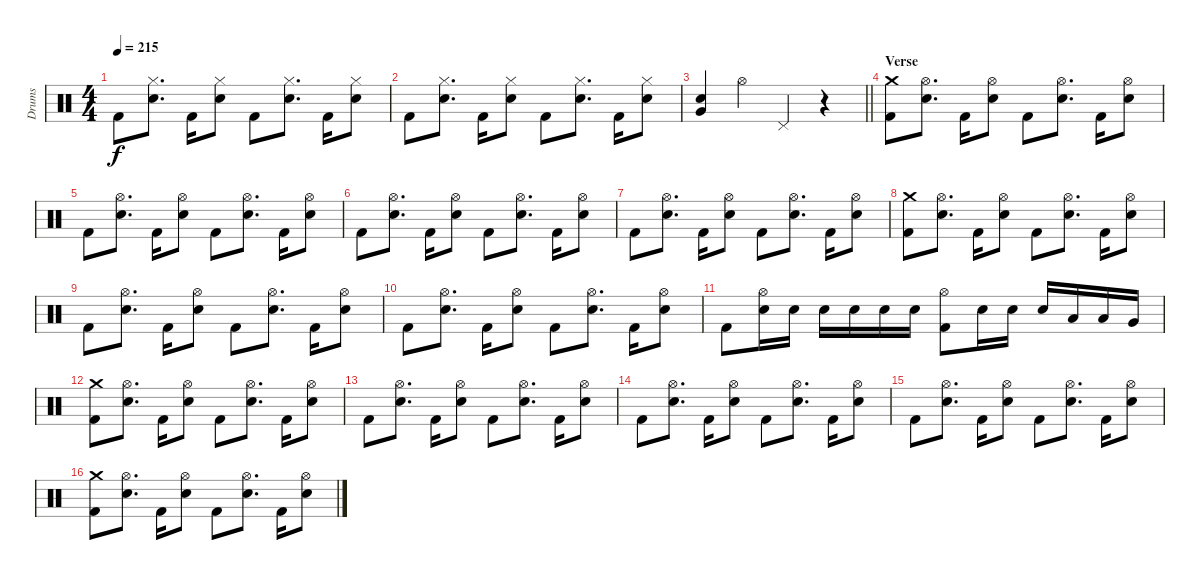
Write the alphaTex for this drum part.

\track ("Drums" "Drums") {instrument percussion}
\staff {score}
\articulation defaults
\ts (4 4)
\tempo 215
\clef neutral
\ks c "Kick (hit) 2".8{dy f}
("Hi-Hat (closed)" "Electric Snare (hit)").8{d} "Kick (hit) 2".16 ("Hi-Hat (closed)" "Electric Snare (hit)").8 "Kick (hit) 2".8 ("Hi-Hat (closed)" "Electric Snare (hit)").8{d} "Kick (hit) 2".16 ("Hi-Hat (closed)" "Electric Snare (hit)").8 |
"Kick (hit) 2".8 ("Hi-Hat (closed)" "Electric Snare (hit)").8{d} "Kick (hit) 2".16 ("Hi-Hat (closed)" "Electric Snare (hit)").8 "Kick (hit) 2".8 ("Hi-Hat (closed)" "Electric Snare (hit)").8{d} "Kick (hit) 2".16 ("Hi-Hat (closed)" "Electric Snare (hit)").8 |
\barLineRight lightlight
("Very Low Tom (hit)" "Electric Snare (hit)").4 "Hi-Hat (open)".4 "Pedal Hi-Hat (hit)".4 r.4 |
\section ("" "Verse ")
("Crash medium (hit)" "Kick (hit) 2").8 ("Hi-Hat (open)" "Electric Snare (hit)").8{d} "Kick (hit) 2".16 ("Hi-Hat (open)" "Electric Snare (hit)").8 "Kick (hit) 2".8 ("Hi-Hat (open)" "Electric Snare (hit)").8{d} "Kick (hit) 2".16 ("Hi-Hat (open)" "Electric Snare (hit)").8 |
"Kick (hit) 2".8 ("Hi-Hat (open)" "Electric Snare (hit)").8{d} "Kick (hit) 2".16 ("Hi-Hat (open)" "Electric Snare (hit)").8 "Kick (hit) 2".8 ("Hi-Hat (open)" "Electric Snare (hit)").8{d} "Kick (hit) 2".16 ("Hi-Hat (open)" "Electric Snare (hit)").8 |
"Kick (hit) 2".8 ("Hi-Hat (open)" "Electric Snare (hit)").8{d} "Kick (hit) 2".16 ("Hi-Hat (open)" "Electric Snare (hit)").8 "Kick (hit) 2".8 ("Hi-Hat (open)" "Electric Snare (hit)").8{d} "Kick (hit) 2".16 ("Hi-Hat (open)" "Electric Snare (hit)").8 |
"Kick (hit) 2".8 ("Hi-Hat (open)" "Electric Snare (hit)").8{d} "Kick (hit) 2".16 ("Hi-Hat (open)" "Electric Snare (hit)").8 "Kick (hit) 2".8 ("Hi-Hat (open)" "Electric Snare (hit)").8{d} "Kick (hit) 2".16 ("Hi-Hat (open)" "Electric Snare (hit)").8 |
("Crash medium (hit)" "Kick (hit) 2").8 ("Hi-Hat (open)" "Electric Snare (hit)").8{d} "Kick (hit) 2".16 ("Hi-Hat (open)" "Electric Snare (hit)").8 "Kick (hit) 2".8 ("Hi-Hat (open)" "Electric Snare (hit)").8{d} "Kick (hit) 2".16 ("Hi-Hat (open)" "Electric Snare (hit)").8 |
"Kick (hit) 2".8 ("Hi-Hat (open)" "Electric Snare (hit)").8{d} "Kick (hit) 2".16 ("Hi-Hat (open)" "Electric Snare (hit)").8 "Kick (hit) 2".8 ("Hi-Hat (open)" "Electric Snare (hit)").8{d} "Kick (hit) 2".16 ("Hi-Hat (open)" "Electric Snare (hit)").8 |
"Kick (hit) 2".8 ("Hi-Hat (open)" "Electric Snare (hit)").8{d} "Kick (hit) 2".16 ("Hi-Hat (open)" "Electric Snare (hit)").8 "Kick (hit) 2".8 ("Hi-Hat (open)" "Electric Snare (hit)").8{d} "Kick (hit) 2".16 ("Hi-Hat (open)" "Electric Snare (hit)").8 |
"Kick (hit) 2".8 ("Hi-Hat (open)" "Electric Snare (hit)").16 "Electric Snare (hit)".16 "Electric Snare (hit)".16 "Electric Snare (hit)".16 "Electric Snare (hit)".16 "Electric Snare (hit)".16 ("Hi-Hat (open)" "Kick (hit) 2").8 "Electric Snare (hit)".16 "Electric Snare (hit)".16 "Electric Snare (hit)".16 "Low Tom (hit)".16 "Low Tom (hit)".16 "Very Low Tom (hit)".16 |
("Crash medium (hit)" "Kick (hit) 2").8 ("Hi-Hat (open)" "Electric Snare (hit)").8{d} "Kick (hit) 2".16 ("Hi-Hat (open)" "Electric Snare (hit)").8 "Kick (hit) 2".8 ("Hi-Hat (open)" "Electric Snare (hit)").8{d} "Kick (hit) 2".16 ("Hi-Hat (open)" "Electric Snare (hit)").8 |
"Kick (hit) 2".8 ("Hi-Hat (open)" "Electric Snare (hit)").8{d} "Kick (hit) 2".16 ("Hi-Hat (open)" "Electric Snare (hit)").8 "Kick (hit) 2".8 ("Hi-Hat (open)" "Electric Snare (hit)").8{d} "Kick (hit) 2".16 ("Hi-Hat (open)" "Electric Snare (hit)").8 |
"Kick (hit) 2".8 ("Hi-Hat (open)" "Electric Snare (hit)").8{d} "Kick (hit) 2".16 ("Hi-Hat (open)" "Electric Snare (hit)").8 "Kick (hit) 2".8 ("Hi-Hat (open)" "Electric Snare (hit)").8{d} "Kick (hit) 2".16 ("Hi-Hat (open)" "Electric Snare (hit)").8 |
"Kick (hit) 2".8 ("Hi-Hat (open)" "Electric Snare (hit)").8{d} "Kick (hit) 2".16 ("Hi-Hat (open)" "Electric Snare (hit)").8 "Kick (hit) 2".8 ("Hi-Hat (open)" "Electric Snare (hit)").8{d} "Kick (hit) 2".16 ("Hi-Hat (open)" "Electric Snare (hit)").8 |
("Crash medium (hit)" "Kick (hit) 2").8 ("Hi-Hat (open)" "Electric Snare (hit)").8{d} "Kick (hit) 2".16 ("Hi-Hat (open)" "Electric Snare (hit)").8 "Kick (hit) 2".8 ("Hi-Hat (open)" "Electric Snare (hit)").8{d} "Kick (hit) 2".16 ("Hi-Hat (open)" "Electric Snare (hit)").8
